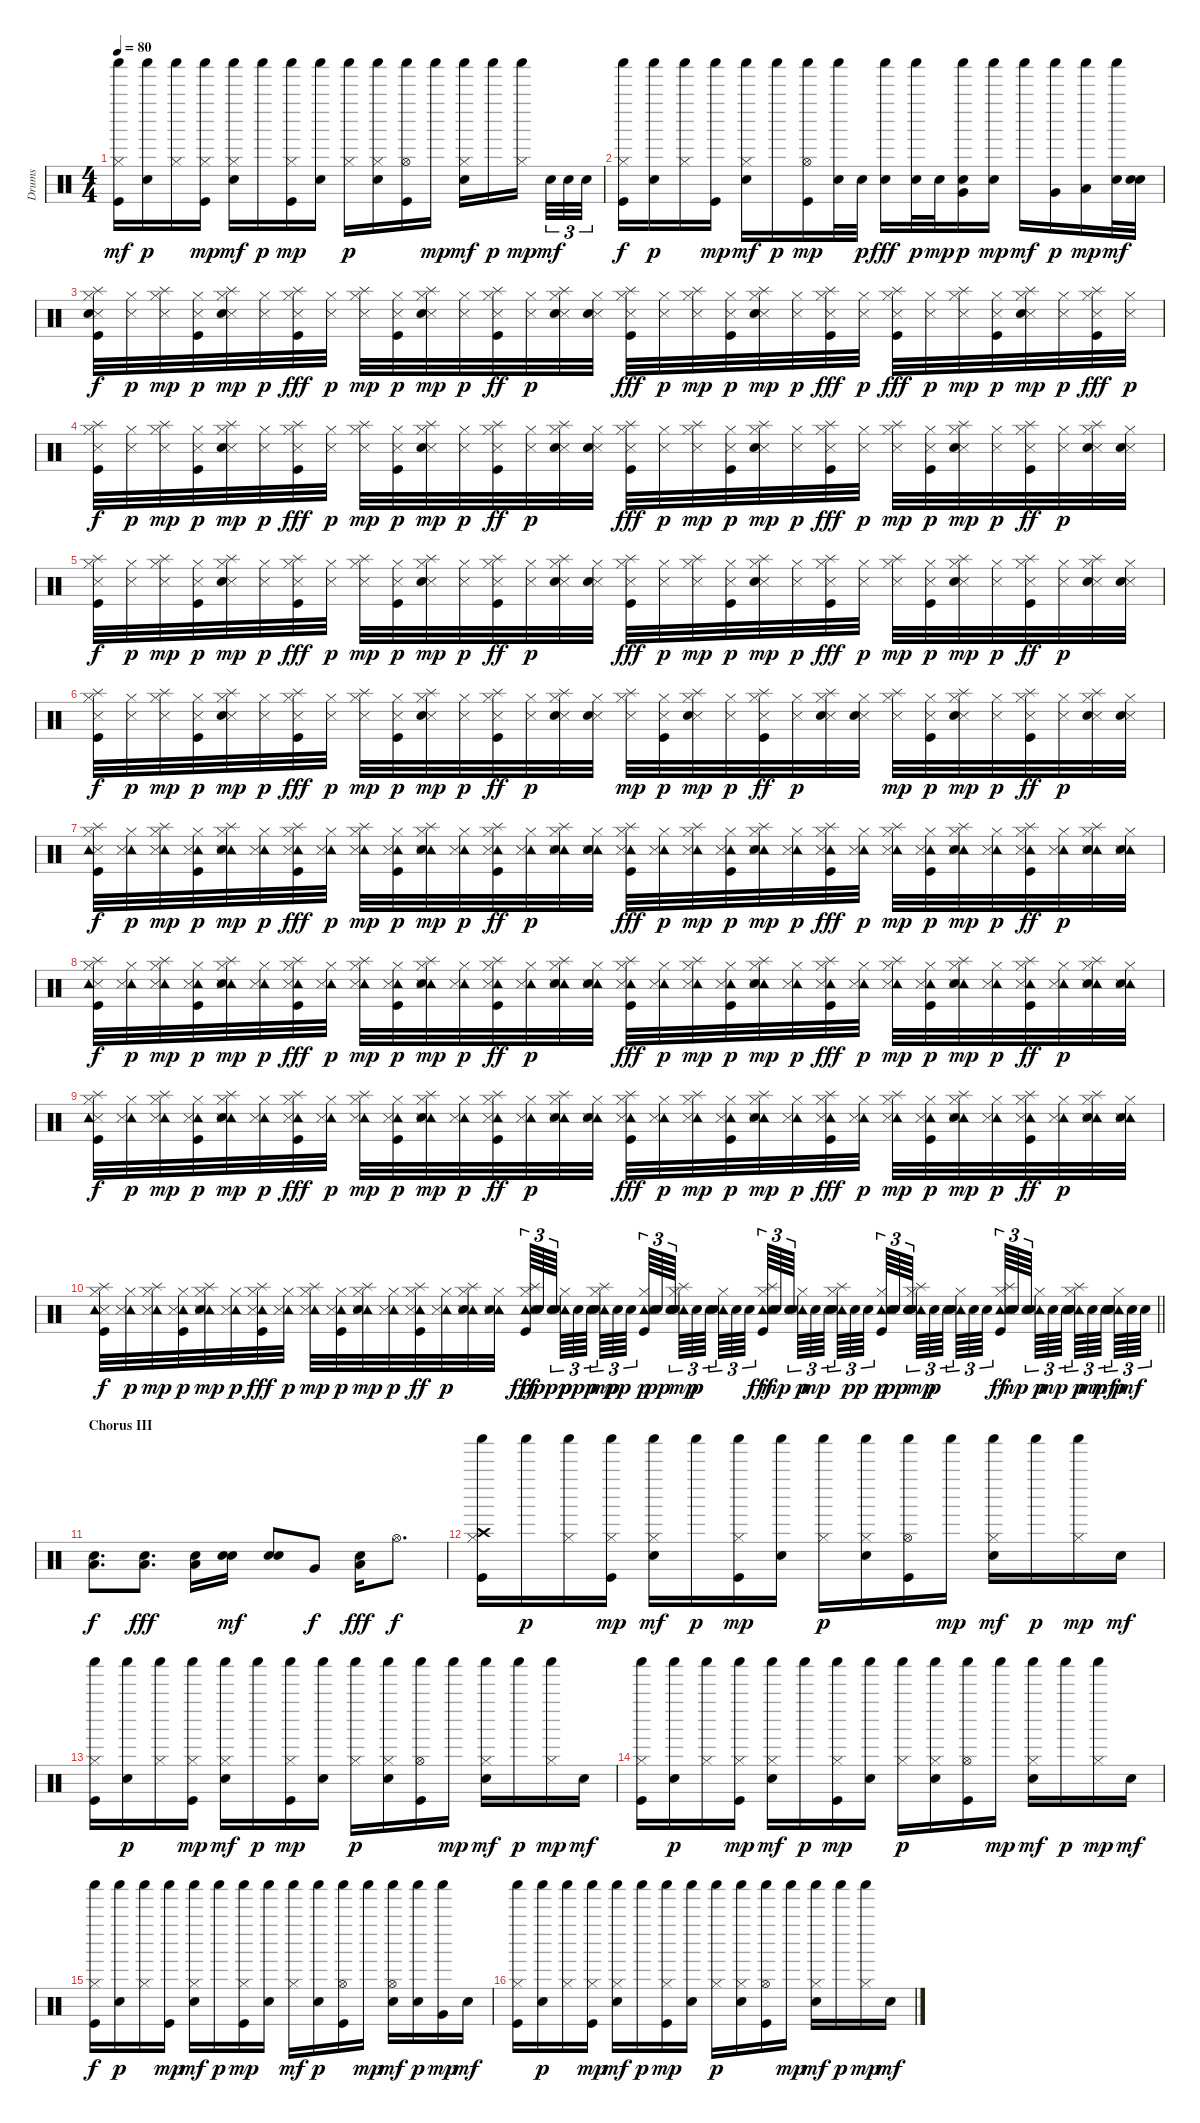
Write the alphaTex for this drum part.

\track ("Drums" "Drums") {instrument percussion}
\staff {score}
\articulation defaults
\ts (4 4)
\tempo 80
\clef neutral
\ks c
("Kick (hit)" "Hi-Hat (closed)" "Shaker (hit)").16{dy mf} ("Snare (hit) 2" "Shaker (hit)").16{dy p} ("Hi-Hat (closed)" "Shaker (hit)").16 ("Kick (hit)" "Hi-Hat (closed)" "Shaker (hit)").16{dy mp} ("Snare (hit) 2" "Hi-Hat (closed)" "Shaker (hit)").16{dy mf} "Shaker (hit)".16{dy p} ("Kick (hit)" "Hi-Hat (closed)" "Shaker (hit)").16{dy mp} ("Snare (hit) 2" "Shaker (hit)").16 ("Hi-Hat (closed)" "Shaker (hit)").16{dy p} ("Snare (hit) 2" "Hi-Hat (closed)" "Shaker (hit)").16 ("Kick (hit)" "Hi-Hat (open)" "Shaker (hit)").16 "Shaker (hit)".16{dy mp} ("Snare (hit) 2" "Hi-Hat (closed)" "Shaker (hit)").16{dy mf} "Shaker (hit)".16{dy p} ("Hi-Hat (closed)" "Shaker (hit)").16{dy mp beam splitsecondary} "Snare (hit) 2".32{tu (3 2) dy mf} "Snare (hit) 2".32{tu (3 2)} "Snare (hit) 2".32{tu (3 2)} |
("Hi-Hat (closed)" "Kick (hit)" "Shaker (hit)").16{dy f volume 10} ("Snare (hit) 2" "Shaker (hit)").16{dy p} ("Hi-Hat (closed)" "Shaker (hit)").16 ("Kick (hit)" "Shaker (hit)").16{dy mp} ("Snare (hit) 2" "Hi-Hat (closed)" "Shaker (hit)").16{dy mf} "Shaker (hit)".16{dy p} ("Kick (hit)" "Hi-Hat (open)" "Shaker (hit)").16{dy mp} ("Snare (hit) 2" "Shaker (hit)").32 "Snare (hit) 2".32{dy p} ("Snare (hit) 2" "Shaker (hit)").16{dy fff} ("Snare (hit) 2" "Shaker (hit)").32{dy p} "Snare (hit) 2".32{dy mp} ("Very Low Tom (hit)" "Snare (hit) 2" "Shaker (hit)").16{dy p} ("Snare (hit) 2" "Shaker (hit)").16{dy mp} "Shaker (hit)".16{dy mf} ("Very Low Tom (hit)" "Shaker (hit)").16{dy p} ("Low Floor Tom (hit)" "Shaker (hit)").16{dy mp} ("Shaker (hit)" "Electric Snare (hit)").32{dy mf} ("Electric Snare (hit)" "Electric Snare (hit)").32 |
("Splash (hit)" "Hi-Hat (closed)" "Snare (side stick) 3" "Kick (hit)" "Electric Snare (hit)").32{dy f volume 9} ("Hi-Hat (closed)" "Snare (side stick) 3").32{dy p} ("Splash (hit)" "Hi-Hat (closed)" "Snare (side stick) 3").32{dy mp} ("Hi-Hat (closed)" "Snare (side stick) 3" "Kick (hit)").32{dy p} ("Splash (hit)" "Hi-Hat (closed)" "Snare (side stick) 3" "Snare (hit) 2").32{dy mp} ("Hi-Hat (closed)" "Snare (side stick) 3").32{dy p} ("Splash (hit)" "Hi-Hat (closed)" "Snare (side stick) 3" "Kick (hit)").32{dy fff} ("Hi-Hat (closed)" "Snare (side stick) 3").32{dy p} ("Splash (hit)" "Hi-Hat (closed)" "Snare (side stick) 3").32{dy mp} ("Hi-Hat (closed)" "Snare (side stick) 3" "Kick (hit)").32{dy p} ("Splash (hit)" "Hi-Hat (closed)" "Snare (side stick) 3" "Snare (hit) 2").32{dy mp} ("Hi-Hat (closed)" "Snare (side stick) 3").32{dy p} ("Splash (hit)" "Hi-Hat (closed)" "Snare (side stick) 3" "Kick (hit)").32{dy ff} ("Hi-Hat (closed)" "Snare (side stick) 3").32{dy p} ("Splash (hit)" "Hi-Hat (closed)" "Snare (side stick) 3" "Snare (hit) 2").32 ("Hi-Hat (closed)" "Snare (side stick) 3" "Snare (hit) 2").32 ("Splash (hit)" "Hi-Hat (closed)" "Snare (side stick) 3" "Kick (hit)").32{dy fff} ("Hi-Hat (closed)" "Snare (side stick) 3").32{dy p} ("Splash (hit)" "Hi-Hat (closed)" "Snare (side stick) 3").32{dy mp} ("Hi-Hat (closed)" "Snare (side stick) 3" "Kick (hit)").32{dy p} ("Splash (hit)" "Hi-Hat (closed)" "Snare (side stick) 3" "Snare (hit) 2").32{dy mp} ("Hi-Hat (closed)" "Snare (side stick) 3").32{dy p} ("Splash (hit)" "Hi-Hat (closed)" "Snare (side stick) 3" "Kick (hit)").32{dy fff} ("Hi-Hat (closed)" "Snare (side stick) 3").32{dy p} ("Splash (hit)" "Hi-Hat (closed)" "Snare (side stick) 3" "Kick (hit)").32{dy fff} ("Hi-Hat (closed)" "Snare (side stick) 3").32{dy p} ("Splash (hit)" "Hi-Hat (closed)" "Snare (side stick) 3").32{dy mp} ("Hi-Hat (closed)" "Snare (side stick) 3" "Kick (hit)").32{dy p} ("Splash (hit)" "Hi-Hat (closed)" "Snare (side stick) 3" "Snare (hit) 2").32{dy mp} ("Hi-Hat (closed)" "Snare (side stick) 3").32{dy p} ("Splash (hit)" "Hi-Hat (closed)" "Snare (side stick) 3" "Kick (hit)").32{dy fff} ("Hi-Hat (closed)" "Snare (side stick) 3").32{dy p} |
("Splash (hit)" "Hi-Hat (closed)" "Snare (side stick) 3" "Kick (hit)").32{dy f} ("Hi-Hat (closed)" "Snare (side stick) 3").32{dy p} ("Splash (hit)" "Hi-Hat (closed)" "Snare (side stick) 3").32{dy mp} ("Hi-Hat (closed)" "Snare (side stick) 3" "Kick (hit)").32{dy p} ("Splash (hit)" "Hi-Hat (closed)" "Snare (side stick) 3" "Snare (hit) 2").32{dy mp} ("Hi-Hat (closed)" "Snare (side stick) 3").32{dy p} ("Splash (hit)" "Hi-Hat (closed)" "Snare (side stick) 3" "Kick (hit)").32{dy fff} ("Hi-Hat (closed)" "Snare (side stick) 3").32{dy p} ("Splash (hit)" "Hi-Hat (closed)" "Snare (side stick) 3").32{dy mp} ("Hi-Hat (closed)" "Snare (side stick) 3" "Kick (hit)").32{dy p} ("Splash (hit)" "Hi-Hat (closed)" "Snare (side stick) 3" "Snare (hit) 2").32{dy mp} ("Hi-Hat (closed)" "Snare (side stick) 3").32{dy p} ("Splash (hit)" "Hi-Hat (closed)" "Snare (side stick) 3" "Kick (hit)").32{dy ff} ("Hi-Hat (closed)" "Snare (side stick) 3").32{dy p} ("Splash (hit)" "Hi-Hat (closed)" "Snare (side stick) 3" "Snare (hit) 2").32 ("Hi-Hat (closed)" "Snare (side stick) 3" "Snare (hit) 2").32 ("Splash (hit)" "Hi-Hat (closed)" "Snare (side stick) 3" "Kick (hit)").32{dy fff} ("Hi-Hat (closed)" "Snare (side stick) 3").32{dy p} ("Splash (hit)" "Hi-Hat (closed)" "Snare (side stick) 3").32{dy mp} ("Hi-Hat (closed)" "Snare (side stick) 3" "Kick (hit)").32{dy p} ("Splash (hit)" "Hi-Hat (closed)" "Snare (side stick) 3" "Snare (hit) 2").32{dy mp} ("Hi-Hat (closed)" "Snare (side stick) 3").32{dy p} ("Splash (hit)" "Hi-Hat (closed)" "Snare (side stick) 3" "Kick (hit)").32{dy fff} ("Hi-Hat (closed)" "Snare (side stick) 3").32{dy p} ("Splash (hit)" "Hi-Hat (closed)" "Snare (side stick) 3").32{dy mp} ("Hi-Hat (closed)" "Snare (side stick) 3" "Kick (hit)").32{dy p} ("Splash (hit)" "Hi-Hat (closed)" "Snare (side stick) 3" "Snare (hit) 2").32{dy mp} ("Hi-Hat (closed)" "Snare (side stick) 3").32{dy p} ("Splash (hit)" "Hi-Hat (closed)" "Snare (side stick) 3" "Kick (hit)").32{dy ff} ("Hi-Hat (closed)" "Snare (side stick) 3").32{dy p} ("Splash (hit)" "Hi-Hat (closed)" "Snare (side stick) 3" "Snare (hit) 2").32 ("Hi-Hat (closed)" "Snare (side stick) 3" "Snare (hit) 2").32 |
("Splash (hit)" "Hi-Hat (closed)" "Snare (side stick) 3" "Kick (hit)").32{dy f} ("Hi-Hat (closed)" "Snare (side stick) 3").32{dy p} ("Splash (hit)" "Hi-Hat (closed)" "Snare (side stick) 3").32{dy mp} ("Hi-Hat (closed)" "Snare (side stick) 3" "Kick (hit)").32{dy p} ("Splash (hit)" "Hi-Hat (closed)" "Snare (side stick) 3" "Snare (hit) 2").32{dy mp} ("Hi-Hat (closed)" "Snare (side stick) 3").32{dy p} ("Splash (hit)" "Hi-Hat (closed)" "Snare (side stick) 3" "Kick (hit)").32{dy fff} ("Hi-Hat (closed)" "Snare (side stick) 3").32{dy p} ("Splash (hit)" "Hi-Hat (closed)" "Snare (side stick) 3").32{dy mp} ("Hi-Hat (closed)" "Snare (side stick) 3" "Kick (hit)").32{dy p} ("Splash (hit)" "Hi-Hat (closed)" "Snare (side stick) 3" "Snare (hit) 2").32{dy mp} ("Hi-Hat (closed)" "Snare (side stick) 3").32{dy p} ("Splash (hit)" "Hi-Hat (closed)" "Snare (side stick) 3" "Kick (hit)").32{dy ff} ("Hi-Hat (closed)" "Snare (side stick) 3").32{dy p} ("Splash (hit)" "Hi-Hat (closed)" "Snare (side stick) 3" "Snare (hit) 2").32 ("Hi-Hat (closed)" "Snare (side stick) 3" "Snare (hit) 2").32 ("Splash (hit)" "Hi-Hat (closed)" "Snare (side stick) 3" "Kick (hit)").32{dy fff} ("Hi-Hat (closed)" "Snare (side stick) 3").32{dy p} ("Splash (hit)" "Hi-Hat (closed)" "Snare (side stick) 3").32{dy mp} ("Hi-Hat (closed)" "Snare (side stick) 3" "Kick (hit)").32{dy p} ("Splash (hit)" "Hi-Hat (closed)" "Snare (side stick) 3" "Snare (hit) 2").32{dy mp} ("Hi-Hat (closed)" "Snare (side stick) 3").32{dy p} ("Splash (hit)" "Hi-Hat (closed)" "Snare (side stick) 3" "Kick (hit)").32{dy fff} ("Hi-Hat (closed)" "Snare (side stick) 3").32{dy p} ("Splash (hit)" "Hi-Hat (closed)" "Snare (side stick) 3").32{dy mp} ("Hi-Hat (closed)" "Snare (side stick) 3" "Kick (hit)").32{dy p} ("Splash (hit)" "Hi-Hat (closed)" "Snare (side stick) 3" "Snare (hit) 2").32{dy mp} ("Hi-Hat (closed)" "Snare (side stick) 3").32{dy p} ("Splash (hit)" "Hi-Hat (closed)" "Snare (side stick) 3" "Kick (hit)").32{dy ff} ("Hi-Hat (closed)" "Snare (side stick) 3").32{dy p} ("Splash (hit)" "Hi-Hat (closed)" "Snare (side stick) 3" "Snare (hit) 2").32 ("Hi-Hat (closed)" "Snare (side stick) 3" "Snare (hit) 2").32 |
("Splash (hit)" "Hi-Hat (closed)" "Snare (side stick) 3" "Kick (hit)").32{dy f} ("Hi-Hat (closed)" "Snare (side stick) 3").32{dy p} ("Splash (hit)" "Hi-Hat (closed)" "Snare (side stick) 3").32{dy mp} ("Hi-Hat (closed)" "Snare (side stick) 3" "Kick (hit)").32{dy p} ("Splash (hit)" "Hi-Hat (closed)" "Snare (side stick) 3" "Snare (hit) 2").32{dy mp} ("Hi-Hat (closed)" "Snare (side stick) 3").32{dy p} ("Splash (hit)" "Hi-Hat (closed)" "Snare (side stick) 3" "Kick (hit)").32{dy fff} ("Hi-Hat (closed)" "Snare (side stick) 3").32{dy p} ("Splash (hit)" "Hi-Hat (closed)" "Snare (side stick) 3").32{dy mp} ("Hi-Hat (closed)" "Snare (side stick) 3" "Kick (hit)").32{dy p} ("Splash (hit)" "Hi-Hat (closed)" "Snare (side stick) 3" "Snare (hit) 2").32{dy mp} ("Hi-Hat (closed)" "Snare (side stick) 3").32{dy p} ("Splash (hit)" "Hi-Hat (closed)" "Snare (side stick) 3" "Kick (hit)").32{dy ff} ("Hi-Hat (closed)" "Snare (side stick) 3").32{dy p} ("Splash (hit)" "Hi-Hat (closed)" "Snare (side stick) 3" "Snare (hit) 2").32 ("Hi-Hat (closed)" "Snare (side stick) 3" "Snare (hit) 2").32 ("Splash (hit)" "Hi-Hat (closed)" "Snare (side stick) 3").32{dy mp} ("Hi-Hat (closed)" "Snare (side stick) 3" "Kick (hit)").32{dy p} ("Splash (hit)" "Hi-Hat (closed)" "Snare (side stick) 3" "Snare (hit) 2").32{dy mp} ("Hi-Hat (closed)" "Snare (side stick) 3").32{dy p} ("Splash (hit)" "Hi-Hat (closed)" "Snare (side stick) 3" "Kick (hit)").32{dy ff} ("Hi-Hat (closed)" "Snare (side stick) 3").32{dy p} ("Splash (hit)" "Hi-Hat (closed)" "Snare (side stick) 3" "Snare (hit) 2").32 ("Hi-Hat (closed)" "Snare (side stick) 3" "Snare (hit) 2").32 ("Splash (hit)" "Hi-Hat (closed)" "Snare (side stick) 3").32{dy mp} ("Hi-Hat (closed)" "Snare (side stick) 3" "Kick (hit)").32{dy p} ("Splash (hit)" "Hi-Hat (closed)" "Snare (side stick) 3" "Snare (hit) 2").32{dy mp} ("Hi-Hat (closed)" "Snare (side stick) 3").32{dy p} ("Splash (hit)" "Hi-Hat (closed)" "Snare (side stick) 3" "Kick (hit)").32{dy ff} ("Hi-Hat (closed)" "Snare (side stick) 3").32{dy p} ("Splash (hit)" "Hi-Hat (closed)" "Snare (side stick) 3" "Snare (hit) 2").32 ("Hi-Hat (closed)" "Snare (side stick) 3" "Snare (hit) 2").32 |
("Splash (hit)" "Hi-Hat (closed)" "Snare (side stick) 3" "Kick (hit)" "Tambourine (hit)").32{dy f} ("Tambourine (hit)" "Hi-Hat (closed)" "Snare (side stick) 3").32{dy p} ("Tambourine (hit)" "Splash (hit)" "Hi-Hat (closed)" "Snare (side stick) 3").32{dy mp} ("Tambourine (hit)" "Hi-Hat (closed)" "Snare (side stick) 3" "Kick (hit)").32{dy p} ("Tambourine (hit)" "Splash (hit)" "Hi-Hat (closed)" "Snare (side stick) 3" "Snare (hit) 2").32{dy mp} ("Tambourine (hit)" "Hi-Hat (closed)" "Snare (side stick) 3").32{dy p} ("Tambourine (hit)" "Splash (hit)" "Hi-Hat (closed)" "Snare (side stick) 3" "Kick (hit)").32{dy fff} ("Tambourine (hit)" "Hi-Hat (closed)" "Snare (side stick) 3").32{dy p} ("Tambourine (hit)" "Splash (hit)" "Hi-Hat (closed)" "Snare (side stick) 3").32{dy mp} ("Tambourine (hit)" "Hi-Hat (closed)" "Snare (side stick) 3" "Kick (hit)").32{dy p} ("Tambourine (hit)" "Splash (hit)" "Hi-Hat (closed)" "Snare (side stick) 3" "Snare (hit) 2").32{dy mp} ("Tambourine (hit)" "Hi-Hat (closed)" "Snare (side stick) 3").32{dy p} ("Tambourine (hit)" "Splash (hit)" "Hi-Hat (closed)" "Snare (side stick) 3" "Kick (hit)").32{dy ff} ("Tambourine (hit)" "Hi-Hat (closed)" "Snare (side stick) 3").32{dy p} ("Tambourine (hit)" "Splash (hit)" "Hi-Hat (closed)" "Snare (side stick) 3" "Snare (hit) 2").32 ("Tambourine (hit)" "Hi-Hat (closed)" "Snare (side stick) 3" "Snare (hit) 2").32 ("Tambourine (hit)" "Splash (hit)" "Hi-Hat (closed)" "Snare (side stick) 3" "Kick (hit)").32{dy fff} ("Tambourine (hit)" "Hi-Hat (closed)" "Snare (side stick) 3").32{dy p} ("Tambourine (hit)" "Splash (hit)" "Hi-Hat (closed)" "Snare (side stick) 3").32{dy mp} ("Tambourine (hit)" "Hi-Hat (closed)" "Snare (side stick) 3" "Kick (hit)").32{dy p} ("Tambourine (hit)" "Splash (hit)" "Hi-Hat (closed)" "Snare (side stick) 3" "Snare (hit) 2").32{dy mp} ("Tambourine (hit)" "Hi-Hat (closed)" "Snare (side stick) 3").32{dy p} ("Tambourine (hit)" "Splash (hit)" "Hi-Hat (closed)" "Snare (side stick) 3" "Kick (hit)").32{dy fff} ("Tambourine (hit)" "Hi-Hat (closed)" "Snare (side stick) 3").32{dy p} ("Tambourine (hit)" "Splash (hit)" "Hi-Hat (closed)" "Snare (side stick) 3").32{dy mp} ("Tambourine (hit)" "Hi-Hat (closed)" "Snare (side stick) 3" "Kick (hit)").32{dy p} ("Tambourine (hit)" "Splash (hit)" "Hi-Hat (closed)" "Snare (side stick) 3" "Snare (hit) 2").32{dy mp} ("Tambourine (hit)" "Hi-Hat (closed)" "Snare (side stick) 3").32{dy p} ("Tambourine (hit)" "Splash (hit)" "Hi-Hat (closed)" "Snare (side stick) 3" "Kick (hit)").32{dy ff} ("Tambourine (hit)" "Hi-Hat (closed)" "Snare (side stick) 3").32{dy p} ("Tambourine (hit)" "Splash (hit)" "Hi-Hat (closed)" "Snare (side stick) 3" "Snare (hit) 2").32 ("Tambourine (hit)" "Hi-Hat (closed)" "Snare (side stick) 3" "Snare (hit) 2").32 |
("Splash (hit)" "Hi-Hat (closed)" "Snare (side stick) 3" "Kick (hit)" "Tambourine (hit)").32{dy f} ("Tambourine (hit)" "Hi-Hat (closed)" "Snare (side stick) 3").32{dy p} ("Tambourine (hit)" "Splash (hit)" "Hi-Hat (closed)" "Snare (side stick) 3").32{dy mp} ("Tambourine (hit)" "Hi-Hat (closed)" "Snare (side stick) 3" "Kick (hit)").32{dy p} ("Tambourine (hit)" "Splash (hit)" "Hi-Hat (closed)" "Snare (side stick) 3" "Snare (hit) 2").32{dy mp} ("Tambourine (hit)" "Hi-Hat (closed)" "Snare (side stick) 3").32{dy p} ("Tambourine (hit)" "Splash (hit)" "Hi-Hat (closed)" "Snare (side stick) 3" "Kick (hit)").32{dy fff} ("Tambourine (hit)" "Hi-Hat (closed)" "Snare (side stick) 3").32{dy p} ("Tambourine (hit)" "Splash (hit)" "Hi-Hat (closed)" "Snare (side stick) 3").32{dy mp} ("Tambourine (hit)" "Hi-Hat (closed)" "Snare (side stick) 3" "Kick (hit)").32{dy p} ("Tambourine (hit)" "Splash (hit)" "Hi-Hat (closed)" "Snare (side stick) 3" "Snare (hit) 2").32{dy mp} ("Tambourine (hit)" "Hi-Hat (closed)" "Snare (side stick) 3").32{dy p} ("Tambourine (hit)" "Splash (hit)" "Hi-Hat (closed)" "Snare (side stick) 3" "Kick (hit)").32{dy ff} ("Tambourine (hit)" "Hi-Hat (closed)" "Snare (side stick) 3").32{dy p} ("Tambourine (hit)" "Splash (hit)" "Hi-Hat (closed)" "Snare (side stick) 3" "Snare (hit) 2").32 ("Tambourine (hit)" "Hi-Hat (closed)" "Snare (side stick) 3" "Snare (hit) 2").32 ("Tambourine (hit)" "Splash (hit)" "Hi-Hat (closed)" "Snare (side stick) 3" "Kick (hit)").32{dy fff} ("Tambourine (hit)" "Hi-Hat (closed)" "Snare (side stick) 3").32{dy p} ("Tambourine (hit)" "Splash (hit)" "Hi-Hat (closed)" "Snare (side stick) 3").32{dy mp} ("Tambourine (hit)" "Hi-Hat (closed)" "Snare (side stick) 3" "Kick (hit)").32{dy p} ("Tambourine (hit)" "Splash (hit)" "Hi-Hat (closed)" "Snare (side stick) 3" "Snare (hit) 2").32{dy mp} ("Tambourine (hit)" "Hi-Hat (closed)" "Snare (side stick) 3").32{dy p} ("Tambourine (hit)" "Splash (hit)" "Hi-Hat (closed)" "Snare (side stick) 3" "Kick (hit)").32{dy fff} ("Tambourine (hit)" "Hi-Hat (closed)" "Snare (side stick) 3").32{dy p} ("Tambourine (hit)" "Splash (hit)" "Hi-Hat (closed)" "Snare (side stick) 3").32{dy mp} ("Tambourine (hit)" "Hi-Hat (closed)" "Snare (side stick) 3" "Kick (hit)").32{dy p} ("Tambourine (hit)" "Splash (hit)" "Hi-Hat (closed)" "Snare (side stick) 3" "Snare (hit) 2").32{dy mp} ("Tambourine (hit)" "Hi-Hat (closed)" "Snare (side stick) 3").32{dy p} ("Tambourine (hit)" "Splash (hit)" "Hi-Hat (closed)" "Snare (side stick) 3" "Kick (hit)").32{dy ff} ("Tambourine (hit)" "Hi-Hat (closed)" "Snare (side stick) 3").32{dy p} ("Tambourine (hit)" "Splash (hit)" "Hi-Hat (closed)" "Snare (side stick) 3" "Snare (hit) 2").32 ("Tambourine (hit)" "Hi-Hat (closed)" "Snare (side stick) 3" "Snare (hit) 2").32 |
("Hi-Hat (closed)" "Snare (side stick) 3" "Kick (hit)" "Splash (hit)" "Tambourine (hit)").32{dy f} ("Tambourine (hit)" "Hi-Hat (closed)" "Snare (side stick) 3").32{dy p} ("Tambourine (hit)" "Splash (hit)" "Hi-Hat (closed)" "Snare (side stick) 3").32{dy mp} ("Tambourine (hit)" "Hi-Hat (closed)" "Snare (side stick) 3" "Kick (hit)").32{dy p} ("Tambourine (hit)" "Splash (hit)" "Hi-Hat (closed)" "Snare (side stick) 3" "Snare (hit) 2").32{dy mp} ("Tambourine (hit)" "Hi-Hat (closed)" "Snare (side stick) 3").32{dy p} ("Tambourine (hit)" "Splash (hit)" "Hi-Hat (closed)" "Snare (side stick) 3" "Kick (hit)").32{dy fff} ("Tambourine (hit)" "Hi-Hat (closed)" "Snare (side stick) 3").32{dy p} ("Tambourine (hit)" "Splash (hit)" "Hi-Hat (closed)" "Snare (side stick) 3").32{dy mp} ("Tambourine (hit)" "Hi-Hat (closed)" "Snare (side stick) 3" "Kick (hit)").32{dy p} ("Tambourine (hit)" "Splash (hit)" "Hi-Hat (closed)" "Snare (side stick) 3" "Snare (hit) 2").32{dy mp} ("Tambourine (hit)" "Hi-Hat (closed)" "Snare (side stick) 3").32{dy p} ("Tambourine (hit)" "Splash (hit)" "Hi-Hat (closed)" "Snare (side stick) 3" "Kick (hit)").32{dy ff} ("Tambourine (hit)" "Hi-Hat (closed)" "Snare (side stick) 3").32{dy p} ("Tambourine (hit)" "Splash (hit)" "Hi-Hat (closed)" "Snare (side stick) 3" "Snare (hit) 2").32 ("Tambourine (hit)" "Hi-Hat (closed)" "Snare (side stick) 3" "Snare (hit) 2").32 ("Tambourine (hit)" "Splash (hit)" "Hi-Hat (closed)" "Snare (side stick) 3" "Kick (hit)").32{dy fff} ("Tambourine (hit)" "Hi-Hat (closed)" "Snare (side stick) 3").32{dy p} ("Tambourine (hit)" "Splash (hit)" "Hi-Hat (closed)" "Snare (side stick) 3").32{dy mp} ("Tambourine (hit)" "Hi-Hat (closed)" "Snare (side stick) 3" "Kick (hit)").32{dy p} ("Tambourine (hit)" "Splash (hit)" "Hi-Hat (closed)" "Snare (side stick) 3" "Snare (hit) 2").32{dy mp} ("Tambourine (hit)" "Hi-Hat (closed)" "Snare (side stick) 3").32{dy p} ("Tambourine (hit)" "Splash (hit)" "Hi-Hat (closed)" "Snare (side stick) 3" "Kick (hit)").32{dy fff} ("Tambourine (hit)" "Hi-Hat (closed)" "Snare (side stick) 3").32{dy p} ("Tambourine (hit)" "Splash (hit)" "Hi-Hat (closed)" "Snare (side stick) 3").32{dy mp} ("Tambourine (hit)" "Hi-Hat (closed)" "Snare (side stick) 3" "Kick (hit)").32{dy p} ("Tambourine (hit)" "Splash (hit)" "Hi-Hat (closed)" "Snare (side stick) 3" "Snare (hit) 2").32{dy mp} ("Tambourine (hit)" "Hi-Hat (closed)" "Snare (side stick) 3").32{dy p} ("Tambourine (hit)" "Splash (hit)" "Hi-Hat (closed)" "Snare (side stick) 3" "Kick (hit)").32{dy ff} ("Tambourine (hit)" "Hi-Hat (closed)" "Snare (side stick) 3").32{dy p} ("Tambourine (hit)" "Splash (hit)" "Hi-Hat (closed)" "Snare (side stick) 3" "Snare (hit) 2").32 ("Tambourine (hit)" "Hi-Hat (closed)" "Snare (side stick) 3" "Snare (hit) 2").32 |
\barLineRight lightlight
("Hi-Hat (closed)" "Snare (side stick) 3" "Kick (hit)" "Tambourine (hit)" "Splash (hit)").32{dy f} ("Tambourine (hit)" "Hi-Hat (closed)" "Snare (side stick) 3").32{dy p} ("Tambourine (hit)" "Splash (hit)" "Hi-Hat (closed)" "Snare (side stick) 3").32{dy mp} ("Tambourine (hit)" "Hi-Hat (closed)" "Snare (side stick) 3" "Kick (hit)").32{dy p} ("Tambourine (hit)" "Splash (hit)" "Hi-Hat (closed)" "Snare (side stick) 3" "Snare (hit) 2").32{dy mp} ("Tambourine (hit)" "Hi-Hat (closed)" "Snare (side stick) 3").32{dy p} ("Tambourine (hit)" "Splash (hit)" "Hi-Hat (closed)" "Snare (side stick) 3" "Kick (hit)").32{dy fff} ("Tambourine (hit)" "Hi-Hat (closed)" "Snare (side stick) 3").32{dy p} ("Tambourine (hit)" "Splash (hit)" "Hi-Hat (closed)" "Snare (side stick) 3").32{dy mp} ("Tambourine (hit)" "Hi-Hat (closed)" "Snare (side stick) 3" "Kick (hit)").32{dy p} ("Tambourine (hit)" "Splash (hit)" "Hi-Hat (closed)" "Snare (side stick) 3" "Snare (hit) 2").32{dy mp} ("Tambourine (hit)" "Hi-Hat (closed)" "Snare (side stick) 3").32{dy p} ("Tambourine (hit)" "Splash (hit)" "Hi-Hat (closed)" "Snare (side stick) 3" "Kick (hit)").32{dy ff} ("Tambourine (hit)" "Hi-Hat (closed)" "Snare (side stick) 3").32{dy p} ("Tambourine (hit)" "Splash (hit)" "Hi-Hat (closed)" "Snare (side stick) 3" "Snare (hit) 2").32 ("Tambourine (hit)" "Hi-Hat (closed)" "Snare (side stick) 3" "Snare (hit) 2").32 ("Tambourine (hit)" "Snare (hit) 2" "Splash (hit)" "Hi-Hat (closed)" "Snare (side stick) 3" "Kick (hit)").64{tu (3 2) dy fff} "Snare (hit) 2".64{tu (3 2) dy ppp} "Snare (hit) 2".64{tu (3 2) beam splitsecondary} ("Tambourine (hit)" "Snare (hit) 2" "Hi-Hat (closed)" "Snare (side stick) 3").64{tu (3 2) dy p} "Snare (hit) 2".64{tu (3 2) dy ppp} "Snare (hit) 2".64{tu (3 2) beam splitsecondary} ("Tambourine (hit)" "Snare (hit) 2" "Splash (hit)" "Hi-Hat (closed)" "Snare (side stick) 3").64{tu (3 2) dy mp} "Snare (hit) 2".64{tu (3 2) dy pp} "Snare (hit) 2".64{tu (3 2) beam splitsecondary} ("Tambourine (hit)" "Snare (hit) 2" "Hi-Hat (closed)" "Snare (side stick) 3" "Kick (hit)").64{tu (3 2) dy p} "Snare (hit) 2".64{tu (3 2) dy pp} "Snare (hit) 2".64{tu (3 2) beam splitsecondary} ("Tambourine (hit)" "Snare (hit) 2" "Splash (hit)" "Hi-Hat (closed)" "Snare (side stick) 3" "Snare (hit) 2").64{tu (3 2) dy mp} "Snare (hit) 2".64{tu (3 2) dy p} "Snare (hit) 2".64{tu (3 2) beam splitsecondary} ("Tambourine (hit)" "Snare (hit) 2" "Hi-Hat (closed)" "Snare (side stick) 3").64{tu (3 2)} "Snare (hit) 2".64{tu (3 2)} "Snare (hit) 2".64{tu (3 2) beam splitsecondary} ("Tambourine (hit)" "Snare (hit) 2" "Splash (hit)" "Hi-Hat (closed)" "Snare (side stick) 3" "Kick (hit)").64{tu (3 2) dy fff} "Snare (hit) 2".64{tu (3 2) dy mp} "Snare (hit) 2".64{tu (3 2) beam splitsecondary} ("Tambourine (hit)" "Snare (hit) 2" "Hi-Hat (closed)" "Snare (side stick) 3").64{tu (3 2) dy p} "Snare (hit) 2".64{tu (3 2) dy mp} "Snare (hit) 2".64{tu (3 2)} ("Tambourine (hit)" "Snare (hit) 2" "Splash (hit)" "Hi-Hat (closed)" "Snare (side stick) 3").64{tu (3 2)} "Snare (hit) 2".64{tu (3 2) dy pp} "Snare (hit) 2".64{tu (3 2) beam splitsecondary} ("Tambourine (hit)" "Snare (hit) 2" "Hi-Hat (closed)" "Snare (side stick) 3" "Kick (hit)").64{tu (3 2) dy p} "Snare (hit) 2".64{tu (3 2) dy pp} "Snare (hit) 2".64{tu (3 2) beam splitsecondary} ("Tambourine (hit)" "Snare (hit) 2" "Splash (hit)" "Hi-Hat (closed)" "Snare (side stick) 3" "Snare (hit) 2").64{tu (3 2) dy mp} "Snare (hit) 2".64{tu (3 2) dy p} "Snare (hit) 2".64{tu (3 2) beam splitsecondary} ("Tambourine (hit)" "Snare (hit) 2" "Hi-Hat (closed)" "Snare (side stick) 3").64{tu (3 2)} "Snare (hit) 2".64{tu (3 2)} "Snare (hit) 2".64{tu (3 2) beam splitsecondary} ("Tambourine (hit)" "Snare (hit) 2" "Splash (hit)" "Hi-Hat (closed)" "Snare (side stick) 3" "Kick (hit)").64{tu (3 2) dy ff} "Snare (hit) 2".64{tu (3 2) dy mp} "Snare (hit) 2".64{tu (3 2) beam splitsecondary} ("Tambourine (hit)" "Snare (hit) 2" "Hi-Hat (closed)" "Snare (side stick) 3").64{tu (3 2) dy p} "Snare (hit) 2".64{tu (3 2) dy mp} "Snare (hit) 2".64{tu (3 2) beam splitsecondary} ("Tambourine (hit)" "Snare (hit) 2" "Splash (hit)" "Hi-Hat (closed)" "Snare (side stick) 3" "Snare (hit) 2").64{tu (3 2) dy p} "Snare (hit) 2".64{tu (3 2) dy mp} "Snare (hit) 2".64{tu (3 2) dy mf beam splitsecondary} ("Tambourine (hit)" "Snare (hit) 2" "Hi-Hat (closed)" "Snare (side stick) 3" "Snare (hit) 2").64{tu (3 2) dy p} "Snare (hit) 2".64{tu (3 2) dy mf} "Snare (hit) 2".64{tu (3 2)} |
\section ("" "Chorus III")
("Low Floor Tom (hit)" "Snare (hit) 2").8{d dy f volume 12} ("Low Floor Tom (hit)" "Snare (hit) 2").8{d dy fff} ("Low Floor Tom (hit)" "Snare (hit) 2").16 ("Snare (hit) 2" "Snare (hit) 2").16{dy mf} ("Snare (hit) 2" "Snare (hit) 2").8 "Very Low Tom (hit)".8{dy f} ("Low Floor Tom (hit)" "Snare (hit) 2").16{dy fff} "Hi-Hat (open)".8{d dy f} |
("Kick (hit)" "Hi-Hat (closed)" "Shaker (hit)" "Crash high (hit)").16 "Shaker (hit)".16{dy p} ("Hi-Hat (closed)" "Shaker (hit)").16 ("Kick (hit)" "Hi-Hat (closed)" "Shaker (hit)").16{dy mp} ("Snare (hit) 2" "Hi-Hat (closed)" "Shaker (hit)").16{dy mf} "Shaker (hit)".16{dy p} ("Kick (hit)" "Hi-Hat (closed)" "Shaker (hit)").16{dy mp} ("Snare (hit) 2" "Shaker (hit)").16 ("Hi-Hat (closed)" "Shaker (hit)").16{dy p} ("Snare (hit) 2" "Hi-Hat (closed)" "Shaker (hit)").16 ("Kick (hit)" "Hi-Hat (open)" "Shaker (hit)").16 "Shaker (hit)".16{dy mp} ("Snare (hit) 2" "Hi-Hat (closed)" "Shaker (hit)").16{dy mf} "Shaker (hit)".16{dy p} ("Hi-Hat (closed)" "Shaker (hit)").16{dy mp} "Snare (hit) 2".16{dy mf} |
("Kick (hit)" "Hi-Hat (closed)" "Shaker (hit)").16{volume 12} ("Snare (hit) 2" "Shaker (hit)").16{dy p} ("Hi-Hat (closed)" "Shaker (hit)").16 ("Kick (hit)" "Hi-Hat (closed)" "Shaker (hit)").16{dy mp} ("Snare (hit) 2" "Hi-Hat (closed)" "Shaker (hit)").16{dy mf} "Shaker (hit)".16{dy p} ("Kick (hit)" "Hi-Hat (closed)" "Shaker (hit)").16{dy mp} ("Snare (hit) 2" "Shaker (hit)").16 ("Hi-Hat (closed)" "Shaker (hit)").16{dy p} ("Snare (hit) 2" "Hi-Hat (closed)" "Shaker (hit)").16 ("Kick (hit)" "Hi-Hat (open)" "Shaker (hit)").16 "Shaker (hit)".16{dy mp} ("Snare (hit) 2" "Hi-Hat (closed)" "Shaker (hit)").16{dy mf} "Shaker (hit)".16{dy p} ("Hi-Hat (closed)" "Shaker (hit)").16{dy mp} "Snare (hit) 2".16{dy mf} |
("Kick (hit)" "Hi-Hat (closed)" "Shaker (hit)").16 ("Snare (hit) 2" "Shaker (hit)").16{dy p} ("Hi-Hat (closed)" "Shaker (hit)").16 ("Kick (hit)" "Hi-Hat (closed)" "Shaker (hit)").16{dy mp} ("Snare (hit) 2" "Hi-Hat (closed)" "Shaker (hit)").16{dy mf} "Shaker (hit)".16{dy p} ("Kick (hit)" "Hi-Hat (closed)" "Shaker (hit)").16{dy mp} ("Snare (hit) 2" "Shaker (hit)").16 ("Hi-Hat (closed)" "Shaker (hit)").16{dy p} ("Snare (hit) 2" "Hi-Hat (closed)" "Shaker (hit)").16 ("Kick (hit)" "Hi-Hat (open)" "Shaker (hit)").16 "Shaker (hit)".16{dy mp} ("Snare (hit) 2" "Hi-Hat (closed)" "Shaker (hit)").16{dy mf} "Shaker (hit)".16{dy p} ("Hi-Hat (closed)" "Shaker (hit)").16{dy mp} "Snare (hit) 2".16{dy mf} |
("Shaker (hit)" "Hi-Hat (closed)" "Kick (hit)").16{dy f} ("Snare (hit) 2" "Shaker (hit)").16{dy p} ("Hi-Hat (closed)" "Shaker (hit)").16 ("Kick (hit)" "Shaker (hit)").16{dy mp} ("Snare (hit) 2" "Hi-Hat (closed)" "Shaker (hit)").16{dy mf} "Shaker (hit)".16{dy p} ("Kick (hit)" "Hi-Hat (closed)" "Shaker (hit)").16{dy mp} ("Snare (hit) 2" "Shaker (hit)").16 ("Hi-Hat (closed)" "Shaker (hit)").16{dy mf} ("Snare (hit) 2" "Shaker (hit)").16{dy p} ("Kick (hit)" "Hi-Hat (open)" "Shaker (hit)").16 "Shaker (hit)".16{dy mp} ("Snare (hit) 2" "Hi-Hat (open)" "Shaker (hit)").16{dy mf} ("Snare (hit) 2" "Shaker (hit)").16{dy p} ("Very Low Tom (hit)" "Shaker (hit)").16{dy mp} "Snare (hit) 2".16{dy mf} |
("Kick (hit)" "Hi-Hat (closed)" "Shaker (hit)").16 ("Snare (hit) 2" "Shaker (hit)").16{dy p} ("Hi-Hat (closed)" "Shaker (hit)").16 ("Kick (hit)" "Hi-Hat (closed)" "Shaker (hit)").16{dy mp} ("Snare (hit) 2" "Hi-Hat (closed)" "Shaker (hit)").16{dy mf} "Shaker (hit)".16{dy p} ("Kick (hit)" "Hi-Hat (closed)" "Shaker (hit)").16{dy mp} ("Snare (hit) 2" "Shaker (hit)").16 ("Hi-Hat (closed)" "Shaker (hit)").16{dy p} ("Snare (hit) 2" "Hi-Hat (closed)" "Shaker (hit)").16 ("Kick (hit)" "Hi-Hat (open)" "Shaker (hit)").16 "Shaker (hit)".16{dy mp} ("Snare (hit) 2" "Hi-Hat (closed)" "Shaker (hit)").16{dy mf} "Shaker (hit)".16{dy p} ("Hi-Hat (closed)" "Shaker (hit)").16{dy mp} "Snare (hit) 2".16{dy mf}
